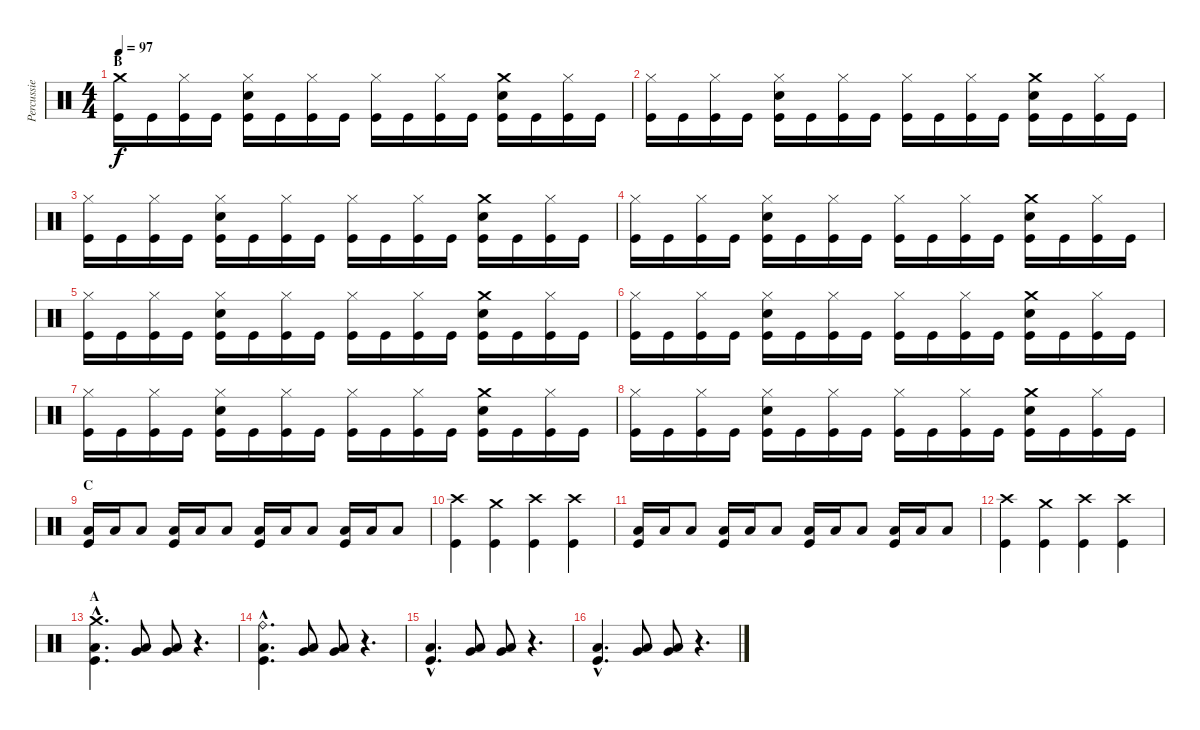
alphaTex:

\track ("Percussie" "Percussie") {instrument percussion}
\staff {score}
\articulation defaults
\ts (4 4)
\section ("" "B")
\tempo 97
\clef neutral
\ks c
("Crash medium (hit)" "Kick (hit)").16{dy f} "Kick (hit)".16 ("Hi-Hat (closed)" "Kick (hit)").16 "Kick (hit)".16 ("Hi-Hat (closed)" "Electric Snare (hit)" "Kick (hit)").16 "Kick (hit)".16 ("Hi-Hat (closed)" "Kick (hit)").16 "Kick (hit)".16 ("Hi-Hat (closed)" "Kick (hit)").16 "Kick (hit)".16 ("Hi-Hat (closed)" "Kick (hit)").16 "Kick (hit)".16 ("Crash medium (hit)" "Electric Snare (hit)" "Kick (hit)").16 "Kick (hit)".16 ("Hi-Hat (closed)" "Kick (hit)").16 "Kick (hit)".16 |
("Hi-Hat (closed)" "Kick (hit)").16 "Kick (hit)".16 ("Hi-Hat (closed)" "Kick (hit)").16 "Kick (hit)".16 ("Hi-Hat (closed)" "Electric Snare (hit)" "Kick (hit)").16 "Kick (hit)".16 ("Hi-Hat (closed)" "Kick (hit)").16 "Kick (hit)".16 ("Hi-Hat (closed)" "Kick (hit)").16 "Kick (hit)".16 ("Hi-Hat (closed)" "Kick (hit)").16 "Kick (hit)".16 ("Crash medium (hit)" "Electric Snare (hit)" "Kick (hit)").16 "Kick (hit)".16 ("Hi-Hat (closed)" "Kick (hit)").16 "Kick (hit)".16 |
("Hi-Hat (closed)" "Kick (hit)").16 "Kick (hit)".16 ("Hi-Hat (closed)" "Kick (hit)").16 "Kick (hit)".16 ("Hi-Hat (closed)" "Electric Snare (hit)" "Kick (hit)").16 "Kick (hit)".16 ("Hi-Hat (closed)" "Kick (hit)").16 "Kick (hit)".16 ("Hi-Hat (closed)" "Kick (hit)").16 "Kick (hit)".16 ("Hi-Hat (closed)" "Kick (hit)").16 "Kick (hit)".16 ("Crash medium (hit)" "Electric Snare (hit)" "Kick (hit)").16 "Kick (hit)".16 ("Hi-Hat (closed)" "Kick (hit)").16 "Kick (hit)".16 |
("Hi-Hat (closed)" "Kick (hit)").16 "Kick (hit)".16 ("Hi-Hat (closed)" "Kick (hit)").16 "Kick (hit)".16 ("Hi-Hat (closed)" "Electric Snare (hit)" "Kick (hit)").16 "Kick (hit)".16 ("Hi-Hat (closed)" "Kick (hit)").16 "Kick (hit)".16 ("Hi-Hat (closed)" "Kick (hit)").16 "Kick (hit)".16 ("Hi-Hat (closed)" "Kick (hit)").16 "Kick (hit)".16 ("Crash medium (hit)" "Electric Snare (hit)" "Kick (hit)").16 "Kick (hit)".16 ("Hi-Hat (closed)" "Kick (hit)").16 "Kick (hit)".16 |
("Hi-Hat (closed)" "Kick (hit)").16 "Kick (hit)".16 ("Hi-Hat (closed)" "Kick (hit)").16 "Kick (hit)".16 ("Hi-Hat (closed)" "Electric Snare (hit)" "Kick (hit)").16 "Kick (hit)".16 ("Hi-Hat (closed)" "Kick (hit)").16 "Kick (hit)".16 ("Hi-Hat (closed)" "Kick (hit)").16 "Kick (hit)".16 ("Hi-Hat (closed)" "Kick (hit)").16 "Kick (hit)".16 ("Crash medium (hit)" "Electric Snare (hit)" "Kick (hit)").16 "Kick (hit)".16 ("Hi-Hat (closed)" "Kick (hit)").16 "Kick (hit)".16 |
("Hi-Hat (closed)" "Kick (hit)").16 "Kick (hit)".16 ("Hi-Hat (closed)" "Kick (hit)").16 "Kick (hit)".16 ("Hi-Hat (closed)" "Electric Snare (hit)" "Kick (hit)").16 "Kick (hit)".16 ("Hi-Hat (closed)" "Kick (hit)").16 "Kick (hit)".16 ("Hi-Hat (closed)" "Kick (hit)").16 "Kick (hit)".16 ("Hi-Hat (closed)" "Kick (hit)").16 "Kick (hit)".16 ("Crash medium (hit)" "Electric Snare (hit)" "Kick (hit)").16 "Kick (hit)".16 ("Hi-Hat (closed)" "Kick (hit)").16 "Kick (hit)".16 |
("Hi-Hat (closed)" "Kick (hit)").16 "Kick (hit)".16 ("Hi-Hat (closed)" "Kick (hit)").16 "Kick (hit)".16 ("Hi-Hat (closed)" "Electric Snare (hit)" "Kick (hit)").16 "Kick (hit)".16 ("Hi-Hat (closed)" "Kick (hit)").16 "Kick (hit)".16 ("Hi-Hat (closed)" "Kick (hit)").16 "Kick (hit)".16 ("Hi-Hat (closed)" "Kick (hit)").16 "Kick (hit)".16 ("Crash medium (hit)" "Electric Snare (hit)" "Kick (hit)").16 "Kick (hit)".16 ("Hi-Hat (closed)" "Kick (hit)").16 "Kick (hit)".16 |
("Hi-Hat (closed)" "Kick (hit)").16 "Kick (hit)".16 ("Hi-Hat (closed)" "Kick (hit)").16 "Kick (hit)".16 ("Hi-Hat (closed)" "Electric Snare (hit)" "Kick (hit)").16 "Kick (hit)".16 ("Hi-Hat (closed)" "Kick (hit)").16 "Kick (hit)".16 ("Hi-Hat (closed)" "Kick (hit)").16 "Kick (hit)".16 ("Hi-Hat (closed)" "Kick (hit)").16 "Kick (hit)".16 ("Crash medium (hit)" "Electric Snare (hit)" "Kick (hit)").16 "Kick (hit)".16 ("Hi-Hat (closed)" "Kick (hit)").16 "Kick (hit)".16 |
\section ("" "C")
("Low Floor Tom (hit)" "Kick (hit)").16 "Low Floor Tom (hit)".16 "Low Floor Tom (hit)".8 ("Low Floor Tom (hit)" "Kick (hit)").16 "Low Floor Tom (hit)".16 "Low Floor Tom (hit)".8 ("Low Floor Tom (hit)" "Kick (hit)").16 "Low Floor Tom (hit)".16 "Low Floor Tom (hit)".8 ("Low Floor Tom (hit)" "Kick (hit)").16 "Low Floor Tom (hit)".16 "Low Floor Tom (hit)".8 |
("Crash high (hit)" "Kick (hit)").4 ("Crash medium (hit)" "Kick (hit)").4 ("Crash high (hit)" "Kick (hit)").4 ("Crash high (hit)" "Kick (hit)").4 |
("Low Floor Tom (hit)" "Kick (hit)").16 "Low Floor Tom (hit)".16 "Low Floor Tom (hit)".8 ("Low Floor Tom (hit)" "Kick (hit)").16 "Low Floor Tom (hit)".16 "Low Floor Tom (hit)".8 ("Low Floor Tom (hit)" "Kick (hit)").16 "Low Floor Tom (hit)".16 "Low Floor Tom (hit)".8 ("Low Floor Tom (hit)" "Kick (hit)").16 "Low Floor Tom (hit)".16 "Low Floor Tom (hit)".8 |
("Crash high (hit)" "Kick (hit)").4 ("Crash medium (hit)" "Kick (hit)").4 ("Crash high (hit)" "Kick (hit)").4 ("Crash high (hit)" "Kick (hit)").4 |
\section ("" "A")
("Crash medium (hit)"{hac} "Low Floor Tom (hit)"{hac} "Kick (hit)"{hac}).4{d} ("Low Tom (hit)" "Very Low Tom (hit)").8 ("Low Tom (hit)" "Very Low Tom (hit)").8 r.4{d} |
("Ride (bell)"{hac} "Low Floor Tom (hit)"{hac} "Kick (hit)"{hac}).4{d} ("Low Tom (hit)" "Very Low Tom (hit)").8 ("Low Tom (hit)" "Very Low Tom (hit)").8 r.4{d} |
("Low Floor Tom (hit)"{hac} "Kick (hit)"{hac}).4{d} ("Low Tom (hit)" "Very Low Tom (hit)").8 ("Low Tom (hit)" "Very Low Tom (hit)").8 r.4{d} |
("Low Floor Tom (hit)"{hac} "Kick (hit)"{hac}).4{d} ("Low Tom (hit)" "Very Low Tom (hit)").8 ("Low Tom (hit)" "Very Low Tom (hit)").8 r.4{d}
